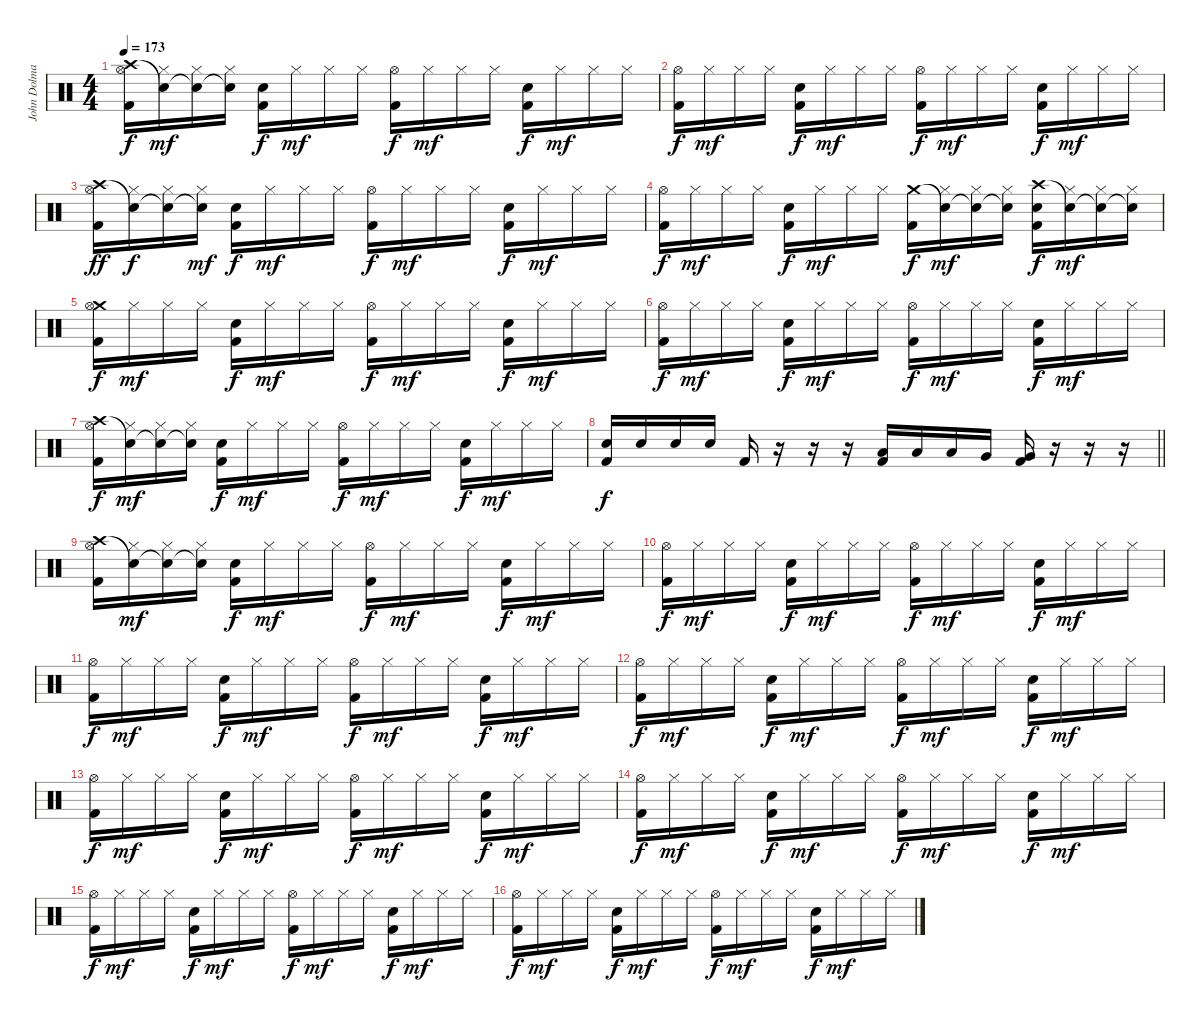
\track ("John Dolmayan" "John Dolma") {instrument percussion}
\staff {score}
\articulation defaults
\ts (4 4)
\tempo 173
\clef neutral
\ks c
("Crash high (hit)" "Hi-Hat (open)" "Kick (hit) 2").16{dy f} ("Snare (hit)"{t} "Hi-Hat (closed)").16{dy mf} ("Snare (hit)"{t} "Hi-Hat (closed)").16 ("Snare (hit)"{t} "Hi-Hat (closed)").16 ("Electric Snare (hit)" "Kick (hit) 2").16{dy f} "Hi-Hat (closed)".16{dy mf} "Hi-Hat (closed)".16 "Hi-Hat (closed)".16 ("Hi-Hat (open)" "Kick (hit) 2").16{dy f} "Hi-Hat (closed)".16{dy mf} "Hi-Hat (closed)".16 "Hi-Hat (closed)".16 ("Electric Snare (hit)" "Kick (hit) 2").16{dy f} "Hi-Hat (closed)".16{dy mf} "Hi-Hat (closed)".16 "Hi-Hat (closed)".16 |
("Hi-Hat (open)" "Kick (hit) 2").16{dy f} "Hi-Hat (closed)".16{dy mf} "Hi-Hat (closed)".16 "Hi-Hat (closed)".16 ("Electric Snare (hit)" "Kick (hit) 2").16{dy f} "Hi-Hat (closed)".16{dy mf} "Hi-Hat (closed)".16 "Hi-Hat (closed)".16 ("Hi-Hat (open)" "Kick (hit) 2").16{dy f} "Hi-Hat (closed)".16{dy mf} "Hi-Hat (closed)".16 "Hi-Hat (closed)".16 ("Electric Snare (hit)" "Kick (hit) 2").16{dy f} "Hi-Hat (closed)".16{dy mf} "Hi-Hat (closed)".16 "Hi-Hat (closed)".16 |
("Crash high (hit)" "Hi-Hat (open)" "Kick (hit) 2").16{dy ff} ("Snare (hit)"{t} "Hi-Hat (closed)").16{dy f} ("Snare (hit)"{t} "Hi-Hat (closed)").16 ("Snare (hit)"{t} "Hi-Hat (closed)").16{dy mf} ("Electric Snare (hit)" "Kick (hit) 2").16{dy f} "Hi-Hat (closed)".16{dy mf} "Hi-Hat (closed)".16 "Hi-Hat (closed)".16 ("Hi-Hat (open)" "Kick (hit) 2").16{dy f} "Hi-Hat (closed)".16{dy mf} "Hi-Hat (closed)".16 "Hi-Hat (closed)".16 ("Electric Snare (hit)" "Kick (hit) 2").16{dy f} "Hi-Hat (closed)".16{dy mf} "Hi-Hat (closed)".16 "Hi-Hat (closed)".16 |
("Hi-Hat (open)" "Kick (hit) 2").16{dy f} "Hi-Hat (closed)".16{dy mf} "Hi-Hat (closed)".16 "Hi-Hat (closed)".16 ("Electric Snare (hit)" "Kick (hit) 2").16{dy f} "Hi-Hat (closed)".16{dy mf} "Hi-Hat (closed)".16 "Hi-Hat (closed)".16 ("Crash medium (hit)" "Kick (hit) 2").16{dy f} ("Snare (hit)"{t} "Hi-Hat (closed)").16{dy mf} ("Snare (hit)"{t} "Hi-Hat (closed)").16 ("Snare (hit)"{t} "Hi-Hat (closed)").16 ("Crash high (hit)" "Electric Snare (hit)" "Kick (hit) 2").16{dy f} ("Snare (hit)"{t} "Hi-Hat (closed)").16{dy mf} ("Snare (hit)"{t} "Hi-Hat (closed)").16 ("Snare (hit)"{t} "Hi-Hat (closed)").16 |
("Crash medium (hit)" "Hi-Hat (open)" "Kick (hit) 2").16{dy f} "Hi-Hat (closed)".16{dy mf} "Hi-Hat (closed)".16 "Hi-Hat (closed)".16 ("Electric Snare (hit)" "Kick (hit) 2").16{dy f} "Hi-Hat (closed)".16{dy mf} "Hi-Hat (closed)".16 "Hi-Hat (closed)".16 ("Hi-Hat (open)" "Kick (hit) 2").16{dy f} "Hi-Hat (closed)".16{dy mf} "Hi-Hat (closed)".16 "Hi-Hat (closed)".16 ("Electric Snare (hit)" "Kick (hit) 2").16{dy f} "Hi-Hat (closed)".16{dy mf} "Hi-Hat (closed)".16 "Hi-Hat (closed)".16 |
("Hi-Hat (open)" "Kick (hit) 2").16{dy f} "Hi-Hat (closed)".16{dy mf} "Hi-Hat (closed)".16 "Hi-Hat (closed)".16 ("Electric Snare (hit)" "Kick (hit) 2").16{dy f} "Hi-Hat (closed)".16{dy mf} "Hi-Hat (closed)".16 "Hi-Hat (closed)".16 ("Hi-Hat (open)" "Kick (hit) 2").16{dy f} "Hi-Hat (closed)".16{dy mf} "Hi-Hat (closed)".16 "Hi-Hat (closed)".16 ("Electric Snare (hit)" "Kick (hit) 2").16{dy f} "Hi-Hat (closed)".16{dy mf} "Hi-Hat (closed)".16 "Hi-Hat (closed)".16 |
("Crash high (hit)" "Hi-Hat (open)" "Kick (hit) 2").16{dy f} ("Snare (hit)"{t} "Hi-Hat (closed)").16{dy mf} ("Snare (hit)"{t} "Hi-Hat (closed)").16 ("Snare (hit)"{t} "Hi-Hat (closed)").16 ("Electric Snare (hit)" "Kick (hit) 2").16{dy f} "Hi-Hat (closed)".16{dy mf} "Hi-Hat (closed)".16 "Hi-Hat (closed)".16 ("Hi-Hat (open)" "Kick (hit) 2").16{dy f} "Hi-Hat (closed)".16{dy mf} "Hi-Hat (closed)".16 "Hi-Hat (closed)".16 ("Electric Snare (hit)" "Kick (hit) 2").16{dy f} "Hi-Hat (closed)".16{dy mf} "Hi-Hat (closed)".16 "Hi-Hat (closed)".16 |
\barLineRight lightlight
("Electric Snare (hit)" "Kick (hit) 2").16{dy f} "Electric Snare (hit)".16 "Electric Snare (hit)".16 "Electric Snare (hit)".16 "Kick (hit) 2".16 r.16 r.16 r.16 ("Low Tom (hit)" "Kick (hit) 2").16 "Low Tom (hit)".16 "Low Tom (hit)".16 "Very Low Tom (hit)".16 ("Very Low Tom (hit)" "Kick (hit) 2").16 r.16 r.16 r.16 |
("Crash high (hit)" "Hi-Hat (open)" "Kick (hit) 2").16 ("Snare (hit)"{t} "Hi-Hat (closed)").16{dy mf} ("Snare (hit)"{t} "Hi-Hat (closed)").16 ("Snare (hit)"{t} "Hi-Hat (closed)").16 ("Electric Snare (hit)" "Kick (hit) 2").16{dy f} "Hi-Hat (closed)".16{dy mf} "Hi-Hat (closed)".16 "Hi-Hat (closed)".16 ("Hi-Hat (open)" "Kick (hit) 2").16{dy f} "Hi-Hat (closed)".16{dy mf} "Hi-Hat (closed)".16 "Hi-Hat (closed)".16 ("Electric Snare (hit)" "Kick (hit) 2").16{dy f} "Hi-Hat (closed)".16{dy mf} "Hi-Hat (closed)".16 "Hi-Hat (closed)".16 |
("Hi-Hat (open)" "Kick (hit) 2").16{dy f} "Hi-Hat (closed)".16{dy mf} "Hi-Hat (closed)".16 "Hi-Hat (closed)".16 ("Electric Snare (hit)" "Kick (hit) 2").16{dy f} "Hi-Hat (closed)".16{dy mf} "Hi-Hat (closed)".16 "Hi-Hat (closed)".16 ("Hi-Hat (open)" "Kick (hit) 2").16{dy f} "Hi-Hat (closed)".16{dy mf} "Hi-Hat (closed)".16 "Hi-Hat (closed)".16 ("Electric Snare (hit)" "Kick (hit) 2").16{dy f} "Hi-Hat (closed)".16{dy mf} "Hi-Hat (closed)".16 "Hi-Hat (closed)".16 |
("Hi-Hat (open)" "Kick (hit) 2").16{dy f} "Hi-Hat (closed)".16{dy mf} "Hi-Hat (closed)".16 "Hi-Hat (closed)".16 ("Electric Snare (hit)" "Kick (hit) 2").16{dy f} "Hi-Hat (closed)".16{dy mf} "Hi-Hat (closed)".16 "Hi-Hat (closed)".16 ("Hi-Hat (open)" "Kick (hit) 2").16{dy f} "Hi-Hat (closed)".16{dy mf} "Hi-Hat (closed)".16 "Hi-Hat (closed)".16 ("Electric Snare (hit)" "Kick (hit) 2").16{dy f} "Hi-Hat (closed)".16{dy mf} "Hi-Hat (closed)".16 "Hi-Hat (closed)".16 |
("Hi-Hat (open)" "Kick (hit) 2").16{dy f} "Hi-Hat (closed)".16{dy mf} "Hi-Hat (closed)".16 "Hi-Hat (closed)".16 ("Electric Snare (hit)" "Kick (hit) 2").16{dy f} "Hi-Hat (closed)".16{dy mf} "Hi-Hat (closed)".16 "Hi-Hat (closed)".16 ("Hi-Hat (open)" "Kick (hit) 2").16{dy f} "Hi-Hat (closed)".16{dy mf} "Hi-Hat (closed)".16 "Hi-Hat (closed)".16 ("Electric Snare (hit)" "Kick (hit) 2").16{dy f} "Hi-Hat (closed)".16{dy mf} "Hi-Hat (closed)".16 "Hi-Hat (closed)".16 |
("Hi-Hat (open)" "Kick (hit) 2").16{dy f} "Hi-Hat (closed)".16{dy mf} "Hi-Hat (closed)".16 "Hi-Hat (closed)".16 ("Electric Snare (hit)" "Kick (hit) 2").16{dy f} "Hi-Hat (closed)".16{dy mf} "Hi-Hat (closed)".16 "Hi-Hat (closed)".16 ("Hi-Hat (open)" "Kick (hit) 2").16{dy f} "Hi-Hat (closed)".16{dy mf} "Hi-Hat (closed)".16 "Hi-Hat (closed)".16 ("Electric Snare (hit)" "Kick (hit) 2").16{dy f} "Hi-Hat (closed)".16{dy mf} "Hi-Hat (closed)".16 "Hi-Hat (closed)".16 |
("Hi-Hat (open)" "Kick (hit) 2").16{dy f} "Hi-Hat (closed)".16{dy mf} "Hi-Hat (closed)".16 "Hi-Hat (closed)".16 ("Electric Snare (hit)" "Kick (hit) 2").16{dy f} "Hi-Hat (closed)".16{dy mf} "Hi-Hat (closed)".16 "Hi-Hat (closed)".16 ("Hi-Hat (open)" "Kick (hit) 2").16{dy f} "Hi-Hat (closed)".16{dy mf} "Hi-Hat (closed)".16 "Hi-Hat (closed)".16 ("Electric Snare (hit)" "Kick (hit) 2").16{dy f} "Hi-Hat (closed)".16{dy mf} "Hi-Hat (closed)".16 "Hi-Hat (closed)".16 |
("Hi-Hat (open)" "Kick (hit) 2").16{dy f} "Hi-Hat (closed)".16{dy mf} "Hi-Hat (closed)".16 "Hi-Hat (closed)".16 ("Electric Snare (hit)" "Kick (hit) 2").16{dy f} "Hi-Hat (closed)".16{dy mf} "Hi-Hat (closed)".16 "Hi-Hat (closed)".16 ("Hi-Hat (open)" "Kick (hit) 2").16{dy f} "Hi-Hat (closed)".16{dy mf} "Hi-Hat (closed)".16 "Hi-Hat (closed)".16 ("Electric Snare (hit)" "Kick (hit) 2").16{dy f} "Hi-Hat (closed)".16{dy mf} "Hi-Hat (closed)".16 "Hi-Hat (closed)".16 |
("Hi-Hat (open)" "Kick (hit) 2").16{dy f} "Hi-Hat (closed)".16{dy mf} "Hi-Hat (closed)".16 "Hi-Hat (closed)".16 ("Electric Snare (hit)" "Kick (hit) 2").16{dy f} "Hi-Hat (closed)".16{dy mf} "Hi-Hat (closed)".16 "Hi-Hat (closed)".16 ("Hi-Hat (open)" "Kick (hit) 2").16{dy f} "Hi-Hat (closed)".16{dy mf} "Hi-Hat (closed)".16 "Hi-Hat (closed)".16 ("Electric Snare (hit)" "Kick (hit) 2").16{dy f} "Hi-Hat (closed)".16{dy mf} "Hi-Hat (closed)".16 "Hi-Hat (closed)".16
